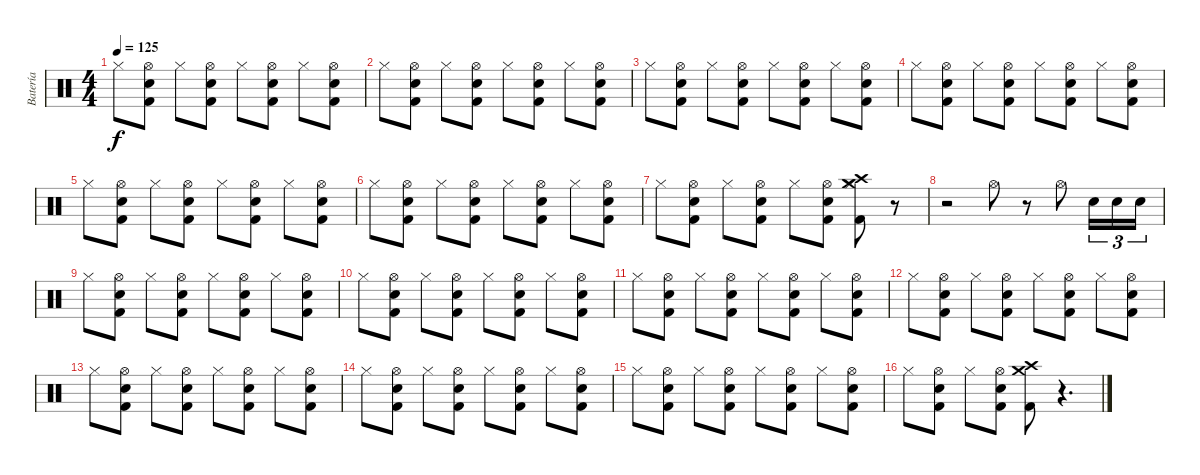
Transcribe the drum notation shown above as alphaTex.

\track ("Batería" "Batería") {instrument percussion}
\staff {score}
\articulation defaults
\ts (4 4)
\tempo 125
\clef neutral
\ks c "Hi-Hat (closed)".8{dy f}
("Snare (hit) 2" "Hi-Hat (open)" "Kick (hit) 2").8 "Hi-Hat (closed)".8 ("Snare (hit) 2" "Hi-Hat (open)" "Kick (hit) 2").8 "Hi-Hat (closed)".8 ("Snare (hit) 2" "Hi-Hat (open)" "Kick (hit) 2").8 "Hi-Hat (closed)".8 ("Snare (hit) 2" "Hi-Hat (open)" "Kick (hit) 2").8 |
"Hi-Hat (closed)".8 ("Snare (hit) 2" "Hi-Hat (open)" "Kick (hit) 2").8 "Hi-Hat (closed)".8 ("Snare (hit) 2" "Hi-Hat (open)" "Kick (hit) 2").8 "Hi-Hat (closed)".8 ("Snare (hit) 2" "Hi-Hat (open)" "Kick (hit) 2").8 "Hi-Hat (closed)".8 ("Snare (hit) 2" "Hi-Hat (open)" "Kick (hit) 2").8 |
"Hi-Hat (closed)".8 ("Snare (hit) 2" "Hi-Hat (open)" "Kick (hit) 2").8 "Hi-Hat (closed)".8 ("Snare (hit) 2" "Hi-Hat (open)" "Kick (hit) 2").8 "Hi-Hat (closed)".8 ("Snare (hit) 2" "Hi-Hat (open)" "Kick (hit) 2").8 "Hi-Hat (closed)".8 ("Snare (hit) 2" "Hi-Hat (open)" "Kick (hit) 2").8 |
"Hi-Hat (closed)".8 ("Snare (hit) 2" "Hi-Hat (open)" "Kick (hit) 2").8 "Hi-Hat (closed)".8 ("Snare (hit) 2" "Hi-Hat (open)" "Kick (hit) 2").8 "Hi-Hat (closed)".8 ("Snare (hit) 2" "Hi-Hat (open)" "Kick (hit) 2").8 "Hi-Hat (closed)".8 ("Snare (hit) 2" "Hi-Hat (open)" "Kick (hit) 2").8 |
"Hi-Hat (closed)".8 ("Snare (hit) 2" "Hi-Hat (open)" "Kick (hit) 2").8 "Hi-Hat (closed)".8 ("Snare (hit) 2" "Hi-Hat (open)" "Kick (hit) 2").8 "Hi-Hat (closed)".8 ("Snare (hit) 2" "Hi-Hat (open)" "Kick (hit) 2").8 "Hi-Hat (closed)".8 ("Snare (hit) 2" "Hi-Hat (open)" "Kick (hit) 2").8 |
"Hi-Hat (closed)".8 ("Snare (hit) 2" "Hi-Hat (open)" "Kick (hit) 2").8 "Hi-Hat (closed)".8 ("Snare (hit) 2" "Hi-Hat (open)" "Kick (hit) 2").8 "Hi-Hat (closed)".8 ("Snare (hit) 2" "Hi-Hat (open)" "Kick (hit) 2").8 "Hi-Hat (closed)".8 ("Snare (hit) 2" "Hi-Hat (open)" "Kick (hit) 2").8 |
"Hi-Hat (closed)".8 ("Snare (hit) 2" "Hi-Hat (open)" "Kick (hit) 2").8 "Hi-Hat (closed)".8 ("Snare (hit) 2" "Hi-Hat (open)" "Kick (hit) 2").8 "Hi-Hat (closed)".8 ("Snare (hit) 2" "Hi-Hat (open)" "Kick (hit) 2").8 ("Crash high (hit)" "Crash medium (hit)" "Hi-Hat (closed)" "Kick (hit) 2").8 r.8 |
r.2 "Hi-Hat (open)".8 r.8 "Hi-Hat (open)".8 "Snare (hit) 2".16{tu (3 2)} "Snare (hit) 2".16{tu (3 2)} "Snare (hit) 2".16{tu (3 2)} |
"Hi-Hat (closed)".8 ("Snare (hit) 2" "Hi-Hat (open)" "Kick (hit) 2").8 "Hi-Hat (closed)".8 ("Snare (hit) 2" "Hi-Hat (open)" "Kick (hit) 2").8 "Hi-Hat (closed)".8 ("Snare (hit) 2" "Hi-Hat (open)" "Kick (hit) 2").8 "Hi-Hat (closed)".8 ("Snare (hit) 2" "Hi-Hat (open)" "Kick (hit) 2").8 |
"Hi-Hat (closed)".8 ("Snare (hit) 2" "Hi-Hat (open)" "Kick (hit) 2").8 "Hi-Hat (closed)".8 ("Snare (hit) 2" "Hi-Hat (open)" "Kick (hit) 2").8 "Hi-Hat (closed)".8 ("Snare (hit) 2" "Hi-Hat (open)" "Kick (hit) 2").8 "Hi-Hat (closed)".8 ("Snare (hit) 2" "Hi-Hat (open)" "Kick (hit) 2").8 |
"Hi-Hat (closed)".8 ("Snare (hit) 2" "Hi-Hat (open)" "Kick (hit) 2").8 "Hi-Hat (closed)".8 ("Snare (hit) 2" "Hi-Hat (open)" "Kick (hit) 2").8 "Hi-Hat (closed)".8 ("Snare (hit) 2" "Hi-Hat (open)" "Kick (hit) 2").8 "Hi-Hat (closed)".8 ("Snare (hit) 2" "Hi-Hat (open)" "Kick (hit) 2").8 |
"Hi-Hat (closed)".8 ("Snare (hit) 2" "Hi-Hat (open)" "Kick (hit) 2").8 "Hi-Hat (closed)".8 ("Snare (hit) 2" "Hi-Hat (open)" "Kick (hit) 2").8 "Hi-Hat (closed)".8 ("Snare (hit) 2" "Hi-Hat (open)" "Kick (hit) 2").8 "Hi-Hat (closed)".8 ("Snare (hit) 2" "Hi-Hat (open)" "Kick (hit) 2").8 |
"Hi-Hat (closed)".8 ("Snare (hit) 2" "Hi-Hat (open)" "Kick (hit) 2").8 "Hi-Hat (closed)".8 ("Snare (hit) 2" "Hi-Hat (open)" "Kick (hit) 2").8 "Hi-Hat (closed)".8 ("Snare (hit) 2" "Hi-Hat (open)" "Kick (hit) 2").8 "Hi-Hat (closed)".8 ("Snare (hit) 2" "Hi-Hat (open)" "Kick (hit) 2").8 |
"Hi-Hat (closed)".8 ("Snare (hit) 2" "Hi-Hat (open)" "Kick (hit) 2").8 "Hi-Hat (closed)".8 ("Snare (hit) 2" "Hi-Hat (open)" "Kick (hit) 2").8 "Hi-Hat (closed)".8 ("Snare (hit) 2" "Hi-Hat (open)" "Kick (hit) 2").8 "Hi-Hat (closed)".8 ("Snare (hit) 2" "Hi-Hat (open)" "Kick (hit) 2").8 |
"Hi-Hat (closed)".8 ("Snare (hit) 2" "Hi-Hat (open)" "Kick (hit) 2").8 "Hi-Hat (closed)".8 ("Snare (hit) 2" "Hi-Hat (open)" "Kick (hit) 2").8 "Hi-Hat (closed)".8 ("Snare (hit) 2" "Hi-Hat (open)" "Kick (hit) 2").8 "Hi-Hat (closed)".8 ("Snare (hit) 2" "Hi-Hat (open)" "Kick (hit) 2").8 |
"Hi-Hat (closed)".8 ("Snare (hit) 2" "Hi-Hat (open)" "Kick (hit) 2").8 "Hi-Hat (closed)".8 ("Snare (hit) 2" "Hi-Hat (open)" "Kick (hit) 2").8 ("Crash medium (hit)" "Crash high (hit)" "Kick (hit) 2").8 r.4{d}
